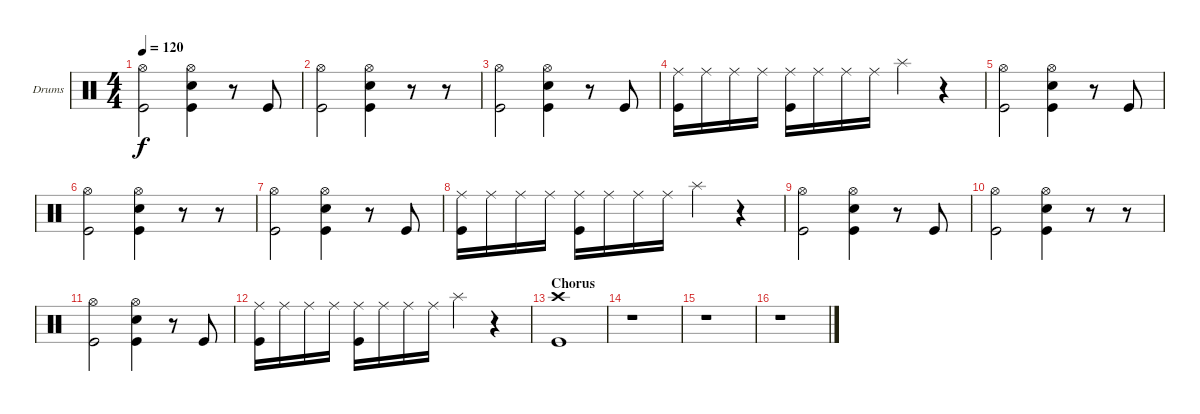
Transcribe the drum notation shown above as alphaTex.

\bracketExtendMode groupsimilarinstruments
\firstSystemTrackNameOrientation horizontal
\otherSystemsTrackNameOrientation horizontal
\track ("Drumkit" "Drums") {instrument percussion}
\staff {score}
\articulation defaults
\ts (4 4)
\tempo 120
\clef neutral
\ks c
("Hi-Hat (open)" "Kick (hit)").2{dy f} ("Hi-Hat (open)" "Snare (hit) 2" "Kick (hit)").4 r.8 "Kick (hit)".8 |
("Hi-Hat (open)" "Kick (hit)").2 ("Hi-Hat (open)" "Snare (hit) 2" "Kick (hit)").4 r.8 r.8 |
("Hi-Hat (open)" "Kick (hit)").2 ("Hi-Hat (open)" "Snare (hit) 2" "Kick (hit)").4 r.8 "Kick (hit)".8 |
("Ride (middle)" "Kick (hit)").16 "Ride (middle)".16 "Ride (middle)".16 "Ride (middle)".16 ("Ride (middle)" "Kick (hit)").16 "Ride (middle)".16 "Ride (middle)".16 "Ride (middle)".16 "Splash (hit)".4 r.4 |
("Hi-Hat (open)" "Kick (hit)").2 ("Hi-Hat (open)" "Snare (hit) 2" "Kick (hit)").4 r.8 "Kick (hit)".8 |
("Hi-Hat (open)" "Kick (hit)").2 ("Hi-Hat (open)" "Snare (hit) 2" "Kick (hit)").4 r.8 r.8 |
("Hi-Hat (open)" "Kick (hit)").2 ("Hi-Hat (open)" "Snare (hit) 2" "Kick (hit)").4 r.8 "Kick (hit)".8 |
("Ride (middle)" "Kick (hit)").16 "Ride (middle)".16 "Ride (middle)".16 "Ride (middle)".16 ("Ride (middle)" "Kick (hit)").16 "Ride (middle)".16 "Ride (middle)".16 "Ride (middle)".16 "Splash (hit)".4 r.4 |
("Hi-Hat (open)" "Kick (hit)").2 ("Hi-Hat (open)" "Snare (hit) 2" "Kick (hit)").4 r.8 "Kick (hit)".8 |
("Hi-Hat (open)" "Kick (hit)").2 ("Hi-Hat (open)" "Snare (hit) 2" "Kick (hit)").4 r.8 r.8 |
("Hi-Hat (open)" "Kick (hit)").2 ("Hi-Hat (open)" "Snare (hit) 2" "Kick (hit)").4 r.8 "Kick (hit)".8 |
("Ride (middle)" "Kick (hit)").16 "Ride (middle)".16 "Ride (middle)".16 "Ride (middle)".16 ("Ride (middle)" "Kick (hit)").16 "Ride (middle)".16 "Ride (middle)".16 "Ride (middle)".16 "Splash (hit)".4 r.4 |
\section ("" "Chorus")
("Crash high (hit)" "Kick (hit)").1 |
r.1 |
r.1 |
r.1
